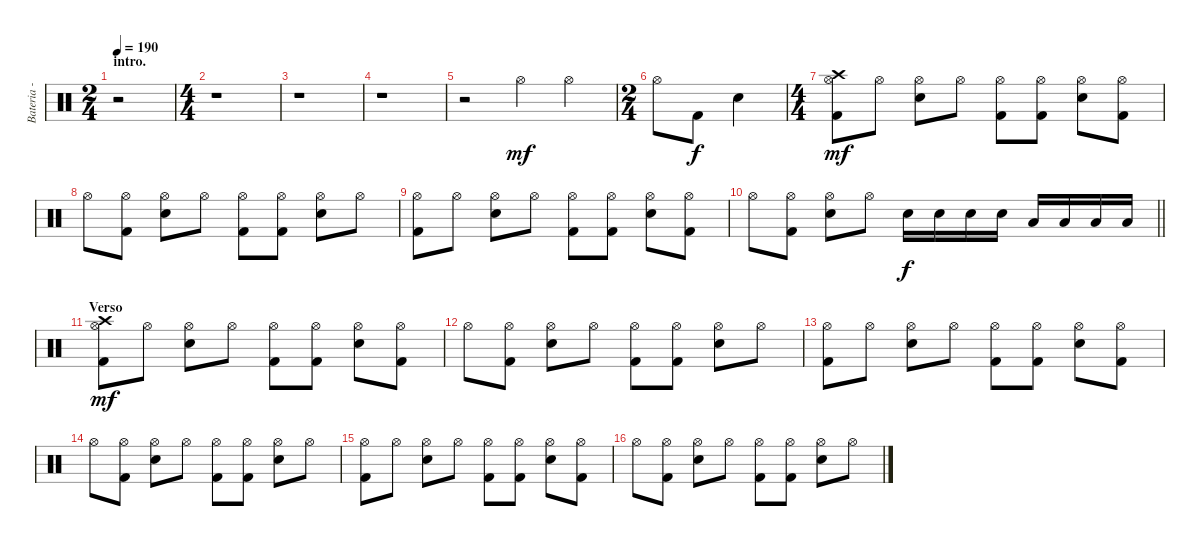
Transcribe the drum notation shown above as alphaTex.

\track ("Bateria - Larzon" "Bateria - ") {instrument percussion}
\staff {score}
\articulation defaults
\ts (2 4)
\section ("" "intro.")
\tempo 190
\clef neutral
\ks c
r.2{dy mf} |
\ts (4 4)
r.1 |
r.1 |
r.1 |
r.2 "Hi-Hat (open)".4 "Hi-Hat (open)".4 |
\ts (2 4)
"Hi-Hat (open)".8 "Kick (hit) 2".8{dy f} "Electric Snare (hit)".4 |
\ts (4 4)
("Kick (hit) 2" "Hi-Hat (open)" "Crash high (hit)").8{dy mf} "Hi-Hat (open)".8 ("Electric Snare (hit)" "Hi-Hat (open)").8 "Hi-Hat (open)".8 ("Kick (hit) 2" "Hi-Hat (open)").8 ("Kick (hit) 2" "Hi-Hat (open)").8 ("Electric Snare (hit)" "Hi-Hat (open)").8 ("Kick (hit) 2" "Hi-Hat (open)").8 |
"Hi-Hat (open)".8 ("Kick (hit) 2" "Hi-Hat (open)").8 ("Electric Snare (hit)" "Hi-Hat (open)").8 "Hi-Hat (open)".8 ("Kick (hit) 2" "Hi-Hat (open)").8 ("Kick (hit) 2" "Hi-Hat (open)").8 ("Electric Snare (hit)" "Hi-Hat (open)").8 "Hi-Hat (open)".8 |
("Kick (hit) 2" "Hi-Hat (open)").8 "Hi-Hat (open)".8 ("Electric Snare (hit)" "Hi-Hat (open)").8 "Hi-Hat (open)".8 ("Kick (hit) 2" "Hi-Hat (open)").8 ("Kick (hit) 2" "Hi-Hat (open)").8 ("Electric Snare (hit)" "Hi-Hat (open)").8 ("Kick (hit) 2" "Hi-Hat (open)").8 |
\barLineRight lightlight "Hi-Hat (open)".8
("Kick (hit) 2" "Hi-Hat (open)").8 ("Electric Snare (hit)" "Hi-Hat (open)").8 "Hi-Hat (open)".8 "Electric Snare (hit)".16{dy f} "Electric Snare (hit)".16 "Electric Snare (hit)".16 "Electric Snare (hit)".16 "Low Tom (hit)".16 "Low Tom (hit)".16 "Low Tom (hit)".16 "Low Tom (hit)".16 |
\section ("" "Verso")
("Kick (hit) 2" "Hi-Hat (open)" "Crash high (hit)").8{dy mf} "Hi-Hat (open)".8 ("Electric Snare (hit)" "Hi-Hat (open)").8 "Hi-Hat (open)".8 ("Kick (hit) 2" "Hi-Hat (open)").8 ("Kick (hit) 2" "Hi-Hat (open)").8 ("Electric Snare (hit)" "Hi-Hat (open)").8 ("Kick (hit) 2" "Hi-Hat (open)").8 |
"Hi-Hat (open)".8 ("Kick (hit) 2" "Hi-Hat (open)").8 ("Electric Snare (hit)" "Hi-Hat (open)").8 "Hi-Hat (open)".8 ("Kick (hit) 2" "Hi-Hat (open)").8 ("Kick (hit) 2" "Hi-Hat (open)").8 ("Electric Snare (hit)" "Hi-Hat (open)").8 "Hi-Hat (open)".8 |
("Kick (hit) 2" "Hi-Hat (open)").8 "Hi-Hat (open)".8 ("Electric Snare (hit)" "Hi-Hat (open)").8 "Hi-Hat (open)".8 ("Kick (hit) 2" "Hi-Hat (open)").8 ("Kick (hit) 2" "Hi-Hat (open)").8 ("Electric Snare (hit)" "Hi-Hat (open)").8 ("Kick (hit) 2" "Hi-Hat (open)").8 |
"Hi-Hat (open)".8 ("Kick (hit) 2" "Hi-Hat (open)").8 ("Electric Snare (hit)" "Hi-Hat (open)").8 "Hi-Hat (open)".8 ("Kick (hit) 2" "Hi-Hat (open)").8 ("Kick (hit) 2" "Hi-Hat (open)").8 ("Electric Snare (hit)" "Hi-Hat (open)").8 "Hi-Hat (open)".8 |
("Kick (hit) 2" "Hi-Hat (open)").8 "Hi-Hat (open)".8 ("Electric Snare (hit)" "Hi-Hat (open)").8 "Hi-Hat (open)".8 ("Kick (hit) 2" "Hi-Hat (open)").8 ("Kick (hit) 2" "Hi-Hat (open)").8 ("Electric Snare (hit)" "Hi-Hat (open)").8 ("Kick (hit) 2" "Hi-Hat (open)").8 |
"Hi-Hat (open)".8 ("Kick (hit) 2" "Hi-Hat (open)").8 ("Electric Snare (hit)" "Hi-Hat (open)").8 "Hi-Hat (open)".8 ("Kick (hit) 2" "Hi-Hat (open)").8 ("Kick (hit) 2" "Hi-Hat (open)").8 ("Electric Snare (hit)" "Hi-Hat (open)").8 "Hi-Hat (open)".8
